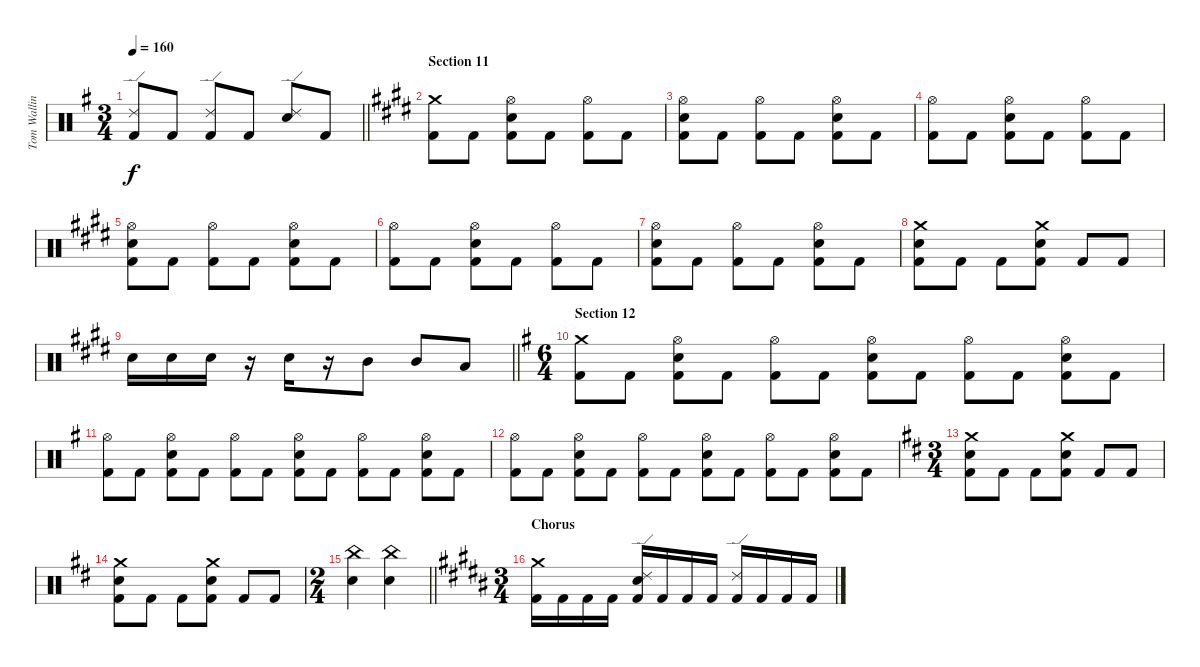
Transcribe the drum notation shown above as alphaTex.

\track ("Tom Walling (drums)" "Tom Wallin") {instrument percussion}
\staff {score}
\articulation defaults
\ts (3 4)
\tempo 160
\clef neutral
\barLineRight lightlight
\ks eminor
("Ride (edge) 2" "Kick (hit) 2").8{dy f} "Kick (hit) 2".8 ("Ride (edge) 2" "Kick (hit) 2").8 "Kick (hit) 2".8 ("Ride (edge) 2" "Electric Snare (hit)").8 "Kick (hit) 2".8 |
\section ("" "Section 11")
\ks c#minor
("Crash medium (hit)" "Kick (hit) 2").8 "Kick (hit) 2".8 ("Hi-Hat (open)" "Electric Snare (hit)" "Kick (hit) 2").8 "Kick (hit) 2".8 ("Hi-Hat (open)" "Kick (hit) 2").8 "Kick (hit) 2".8 |
("Hi-Hat (open)" "Electric Snare (hit)" "Kick (hit) 2").8 "Kick (hit) 2".8 ("Hi-Hat (open)" "Kick (hit) 2").8 "Kick (hit) 2".8 ("Hi-Hat (open)" "Electric Snare (hit)" "Kick (hit) 2").8 "Kick (hit) 2".8 |
("Hi-Hat (open)" "Kick (hit) 2").8 "Kick (hit) 2".8 ("Hi-Hat (open)" "Electric Snare (hit)" "Kick (hit) 2").8 "Kick (hit) 2".8 ("Hi-Hat (open)" "Kick (hit) 2").8 "Kick (hit) 2".8 |
("Hi-Hat (open)" "Electric Snare (hit)" "Kick (hit) 2").8 "Kick (hit) 2".8 ("Hi-Hat (open)" "Kick (hit) 2").8 "Kick (hit) 2".8 ("Hi-Hat (open)" "Electric Snare (hit)" "Kick (hit) 2").8 "Kick (hit) 2".8 |
("Hi-Hat (open)" "Kick (hit) 2").8 "Kick (hit) 2".8 ("Hi-Hat (open)" "Electric Snare (hit)" "Kick (hit) 2").8 "Kick (hit) 2".8 ("Hi-Hat (open)" "Kick (hit) 2").8 "Kick (hit) 2".8 |
("Hi-Hat (open)" "Electric Snare (hit)" "Kick (hit) 2").8 "Kick (hit) 2".8 ("Hi-Hat (open)" "Kick (hit) 2").8 "Kick (hit) 2".8 ("Hi-Hat (open)" "Electric Snare (hit)" "Kick (hit) 2").8 "Kick (hit) 2".8 |
("Crash medium (hit)" "Electric Snare (hit)" "Kick (hit) 2").8 "Kick (hit) 2".8 "Kick (hit) 2".8 ("Crash medium (hit)" "Electric Snare (hit)" "Kick (hit) 2").8 "Kick (hit) 2".8 "Kick (hit) 2".8 |
\barLineRight lightlight "Electric Snare (hit)".16 "Electric Snare (hit)".16 "Electric Snare (hit)".16
r.16 "Electric Snare (hit)".16 r.16 "Mid Tom (hit)".8 "Mid Tom (hit)".8 "Low Tom (hit)".8 |
\ts (6 4)
\section ("" "Section 12")
\ks eminor
("Crash medium (hit)" "Kick (hit) 2").8 "Kick (hit) 2".8 ("Hi-Hat (open)" "Electric Snare (hit)" "Kick (hit) 2").8 "Kick (hit) 2".8 ("Hi-Hat (open)" "Kick (hit) 2").8 "Kick (hit) 2".8 ("Hi-Hat (open)" "Electric Snare (hit)" "Kick (hit) 2").8 "Kick (hit) 2".8 ("Hi-Hat (open)" "Kick (hit) 2").8 "Kick (hit) 2".8 ("Hi-Hat (open)" "Electric Snare (hit)" "Kick (hit) 2").8 "Kick (hit) 2".8 |
("Hi-Hat (open)" "Kick (hit) 2").8 "Kick (hit) 2".8 ("Hi-Hat (open)" "Electric Snare (hit)" "Kick (hit) 2").8 "Kick (hit) 2".8 ("Hi-Hat (open)" "Kick (hit) 2").8 "Kick (hit) 2".8 ("Hi-Hat (open)" "Electric Snare (hit)" "Kick (hit) 2").8 "Kick (hit) 2".8 ("Hi-Hat (open)" "Kick (hit) 2").8 "Kick (hit) 2".8 ("Hi-Hat (open)" "Electric Snare (hit)" "Kick (hit) 2").8 "Kick (hit) 2".8 |
("Hi-Hat (open)" "Kick (hit) 2").8 "Kick (hit) 2".8 ("Hi-Hat (open)" "Electric Snare (hit)" "Kick (hit) 2").8 "Kick (hit) 2".8 ("Hi-Hat (open)" "Kick (hit) 2").8 "Kick (hit) 2".8 ("Hi-Hat (open)" "Electric Snare (hit)" "Kick (hit) 2").8 "Kick (hit) 2".8 ("Hi-Hat (open)" "Kick (hit) 2").8 "Kick (hit) 2".8 ("Hi-Hat (open)" "Electric Snare (hit)" "Kick (hit) 2").8 "Kick (hit) 2".8 |
\ts (3 4)
\ks bminor
("Crash medium (hit)" "Electric Snare (hit)" "Kick (hit) 2").8 "Kick (hit) 2".8 "Kick (hit) 2".8 ("Crash medium (hit)" "Electric Snare (hit)" "Kick (hit) 2").8 "Kick (hit) 2".8 "Kick (hit) 2".8 |
("Crash medium (hit)" "Kick (hit) 2" "Electric Snare (hit)").8 "Kick (hit) 2".8 "Kick (hit) 2".8 ("Kick (hit) 2" "Crash medium (hit)" "Electric Snare (hit)").8 "Kick (hit) 2".8 "Kick (hit) 2".8 |
\ts (2 4)
\barLineRight lightlight
("China (hit)" "Electric Snare (hit)").4 ("China (hit)" "Electric Snare (hit)").4 |
\ts (3 4)
\section ("" "Chorus")
\ks g#minor
("Kick (hit) 2" "Crash medium (hit)").16 "Kick (hit) 2".16 "Kick (hit) 2".16 "Kick (hit) 2".16 ("Electric Snare (hit)" "Kick (hit) 2" "Ride (edge) 2").16 "Kick (hit) 2".16 "Kick (hit) 2".16 "Kick (hit) 2".16 ("Kick (hit) 2" "Ride (edge) 2").16 "Kick (hit) 2".16 "Kick (hit) 2".16 "Kick (hit) 2".16
